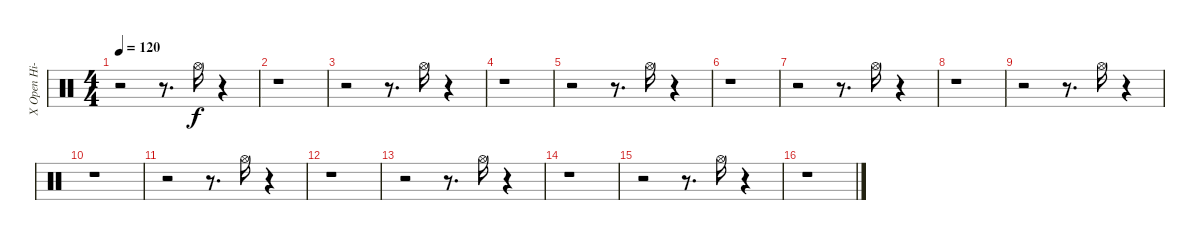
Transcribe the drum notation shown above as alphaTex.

\track ("X Open Hi-Hat       " "X Open Hi-") {instrument percussion}
\staff {score}
\articulation defaults
\ts (4 4)
\tempo 120
\clef neutral
\ks c
r.2{dy f} r.8{d} "Hi-Hat (open)".16 r.4 |
r.1 |
r.2 r.8{d} "Hi-Hat (open)".16 r.4 |
r.1 |
r.2 r.8{d} "Hi-Hat (open)".16 r.4 |
r.1 |
r.2 r.8{d} "Hi-Hat (open)".16 r.4 |
r.1 |
r.2 r.8{d} "Hi-Hat (open)".16 r.4 |
r.1 |
r.2 r.8{d} "Hi-Hat (open)".16 r.4 |
r.1 |
r.2 r.8{d} "Hi-Hat (open)".16 r.4 |
r.1 |
r.2 r.8{d} "Hi-Hat (open)".16 r.4 |
r.1
